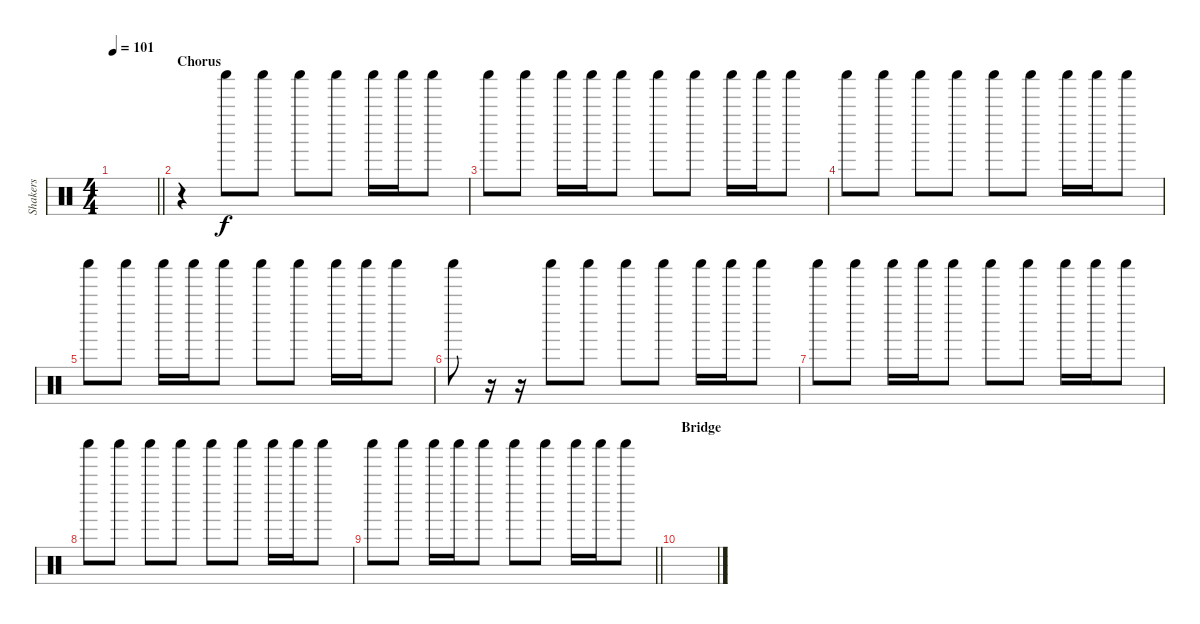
\track ("Shakers" "Shakers") {instrument percussion}
\staff {score}
\articulation defaults
\ts (4 4)
\tempo 101
\clef neutral
\barLineRight lightlight
\ks c
|
\section ("" "Chorus")
r.4 "Shaker (hit)".8 "Shaker (hit)".8 "Shaker (hit)".8 "Shaker (hit)".8 "Shaker (hit)".16 "Shaker (hit)".16 "Shaker (hit)".8 |
"Shaker (hit)".8 "Shaker (hit)".8 "Shaker (hit)".16 "Shaker (hit)".16 "Shaker (hit)".8 "Shaker (hit)".8 "Shaker (hit)".8 "Shaker (hit)".16 "Shaker (hit)".16 "Shaker (hit)".8 |
"Shaker (hit)".8 "Shaker (hit)".8 "Shaker (hit)".8 "Shaker (hit)".8 "Shaker (hit)".8 "Shaker (hit)".8 "Shaker (hit)".16 "Shaker (hit)".16 "Shaker (hit)".8 |
"Shaker (hit)".8 "Shaker (hit)".8 "Shaker (hit)".16 "Shaker (hit)".16 "Shaker (hit)".8 "Shaker (hit)".8 "Shaker (hit)".8 "Shaker (hit)".16 "Shaker (hit)".16 "Shaker (hit)".8 |
"Shaker (hit)".8 r.16 r.16 "Shaker (hit)".8 "Shaker (hit)".8 "Shaker (hit)".8 "Shaker (hit)".8 "Shaker (hit)".16 "Shaker (hit)".16 "Shaker (hit)".8 |
"Shaker (hit)".8 "Shaker (hit)".8 "Shaker (hit)".16 "Shaker (hit)".16 "Shaker (hit)".8 "Shaker (hit)".8 "Shaker (hit)".8 "Shaker (hit)".16 "Shaker (hit)".16 "Shaker (hit)".8 |
"Shaker (hit)".8 "Shaker (hit)".8 "Shaker (hit)".8 "Shaker (hit)".8 "Shaker (hit)".8 "Shaker (hit)".8 "Shaker (hit)".16 "Shaker (hit)".16 "Shaker (hit)".8 |
\barLineRight lightlight "Shaker (hit)".8 "Shaker (hit)".8 "Shaker (hit)".16 "Shaker (hit)".16 "Shaker (hit)".8 "Shaker (hit)".8 "Shaker (hit)".8 "Shaker (hit)".16 "Shaker (hit)".16 "Shaker (hit)".8
|
\section ("" "Bridge")
